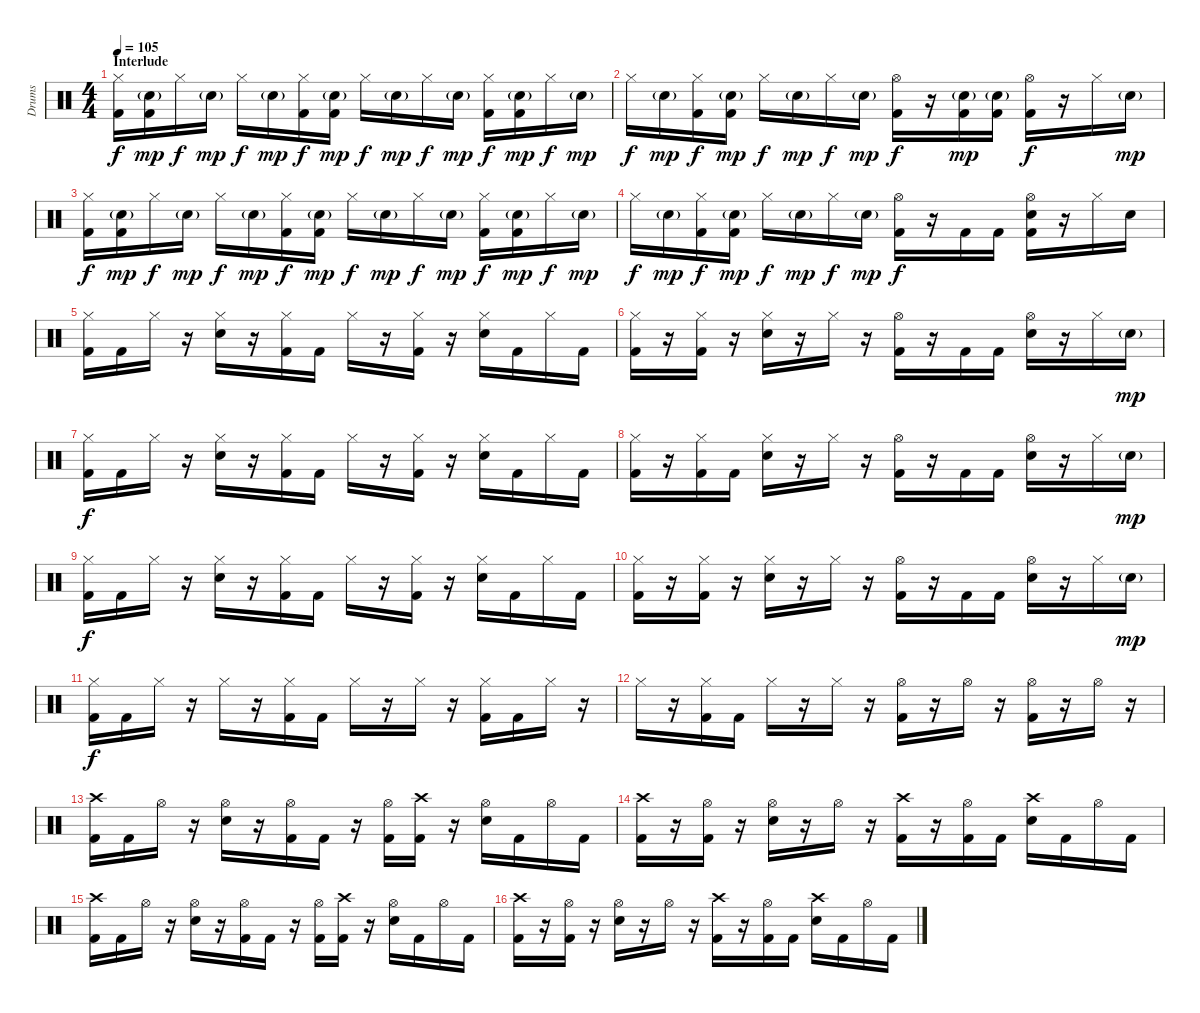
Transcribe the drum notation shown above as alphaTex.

\track ("Drums" "Drums") {instrument percussion}
\staff {score}
\articulation defaults
\ts (4 4)
\section ("" "Interlude")
\tempo 105
\clef neutral
\ks c
("Hi-Hat (closed)" "Kick (hit) 2").16{dy f} ("Snare (hit) 2"{g} "Kick (hit) 2").16{dy mp} "Hi-Hat (closed)".16{dy f} "Snare (hit) 2"{g}.16{dy mp} "Hi-Hat (closed)".16{dy f} "Snare (hit) 2"{g}.16{dy mp} ("Hi-Hat (closed)" "Kick (hit) 2").16{dy f} ("Snare (hit) 2"{g} "Kick (hit) 2").16{dy mp} "Hi-Hat (closed)".16{dy f} "Snare (hit) 2"{g}.16{dy mp} "Hi-Hat (closed)".16{dy f} "Snare (hit) 2"{g}.16{dy mp} ("Hi-Hat (closed)" "Kick (hit) 2").16{dy f} ("Snare (hit) 2"{g} "Kick (hit) 2").16{dy mp} "Hi-Hat (closed)".16{dy f} "Snare (hit) 2"{g}.16{dy mp} |
"Hi-Hat (closed)".16{dy f} "Snare (hit) 2"{g}.16{dy mp} ("Hi-Hat (closed)" "Kick (hit) 2").16{dy f} ("Snare (hit) 2"{g} "Kick (hit) 2").16{dy mp} "Hi-Hat (closed)".16{dy f} "Snare (hit) 2"{g}.16{dy mp} "Hi-Hat (closed)".16{dy f} "Snare (hit) 2"{g}.16{dy mp} ("Hi-Hat (open)" "Kick (hit) 2").16{dy f} r.16 ("Snare (hit) 2"{g} "Kick (hit) 2").16{dy mp} ("Snare (hit) 2"{g} "Kick (hit) 2").16 ("Hi-Hat (open)" "Kick (hit) 2").16{dy f} r.16 "Hi-Hat (closed)".16 "Snare (hit) 2"{g}.16{dy mp} |
("Hi-Hat (closed)" "Kick (hit) 2").16{dy f} ("Snare (hit) 2"{g} "Kick (hit) 2").16{dy mp} "Hi-Hat (closed)".16{dy f} "Snare (hit) 2"{g}.16{dy mp} "Hi-Hat (closed)".16{dy f} "Snare (hit) 2"{g}.16{dy mp} ("Hi-Hat (closed)" "Kick (hit) 2").16{dy f} ("Snare (hit) 2"{g} "Kick (hit) 2").16{dy mp} "Hi-Hat (closed)".16{dy f} "Snare (hit) 2"{g}.16{dy mp} "Hi-Hat (closed)".16{dy f} "Snare (hit) 2"{g}.16{dy mp} ("Hi-Hat (closed)" "Kick (hit) 2").16{dy f} ("Snare (hit) 2"{g} "Kick (hit) 2").16{dy mp} "Hi-Hat (closed)".16{dy f} "Snare (hit) 2"{g}.16{dy mp} |
"Hi-Hat (closed)".16{dy f} "Snare (hit) 2"{g}.16{dy mp} ("Hi-Hat (closed)" "Kick (hit) 2").16{dy f} ("Snare (hit) 2"{g} "Kick (hit) 2").16{dy mp} "Hi-Hat (closed)".16{dy f} "Snare (hit) 2"{g}.16{dy mp} "Hi-Hat (closed)".16{dy f} "Snare (hit) 2"{g}.16{dy mp} ("Hi-Hat (open)" "Kick (hit) 2").16{dy f} r.16 "Kick (hit) 2".16 "Kick (hit) 2".16 ("Hi-Hat (open)" "Snare (hit) 2" "Kick (hit) 2").16 r.16 "Hi-Hat (closed)".16 "Snare (hit) 2".16 |
("Hi-Hat (closed)" "Kick (hit) 2").16 "Kick (hit) 2".16 "Hi-Hat (closed)".16 r.16 ("Hi-Hat (closed)" "Snare (hit) 2").16 r.16 ("Hi-Hat (closed)" "Kick (hit) 2").16 "Kick (hit) 2".16 "Hi-Hat (closed)".16 r.16 ("Hi-Hat (closed)" "Kick (hit) 2").16 r.16 ("Hi-Hat (closed)" "Snare (hit) 2").16 "Kick (hit) 2".16 "Hi-Hat (closed)".16 "Kick (hit) 2".16 |
("Hi-Hat (closed)" "Kick (hit) 2").16 r.16 ("Hi-Hat (closed)" "Kick (hit) 2").16 r.16 ("Hi-Hat (closed)" "Snare (hit) 2").16 r.16 "Hi-Hat (closed)".16 r.16 ("Hi-Hat (open)" "Kick (hit) 2").16 r.16 "Kick (hit) 2".16 "Kick (hit) 2".16 ("Hi-Hat (open)" "Snare (hit) 2").16 r.16 "Hi-Hat (closed)".16 "Snare (hit) 2"{g}.16{dy mp} |
("Hi-Hat (closed)" "Kick (hit) 2").16{dy f} "Kick (hit) 2".16 "Hi-Hat (closed)".16 r.16 ("Hi-Hat (closed)" "Snare (hit) 2").16 r.16 ("Hi-Hat (closed)" "Kick (hit) 2").16 "Kick (hit) 2".16 "Hi-Hat (closed)".16 r.16 ("Hi-Hat (closed)" "Kick (hit) 2").16 r.16 ("Hi-Hat (closed)" "Snare (hit) 2").16 "Kick (hit) 2".16 "Hi-Hat (closed)".16 "Kick (hit) 2".16 |
("Hi-Hat (closed)" "Kick (hit) 2").16 r.16 ("Hi-Hat (closed)" "Kick (hit) 2").16 "Kick (hit) 2".16 ("Hi-Hat (closed)" "Snare (hit) 2").16 r.16 "Hi-Hat (closed)".16 r.16 ("Hi-Hat (open)" "Kick (hit) 2").16 r.16 "Kick (hit) 2".16 "Kick (hit) 2".16 ("Hi-Hat (open)" "Snare (hit) 2").16 r.16 "Hi-Hat (closed)".16 "Snare (hit) 2"{g}.16{dy mp} |
("Hi-Hat (closed)" "Kick (hit) 2").16{dy f} "Kick (hit) 2".16 "Hi-Hat (closed)".16 r.16 ("Hi-Hat (closed)" "Snare (hit) 2").16 r.16 ("Hi-Hat (closed)" "Kick (hit) 2").16 "Kick (hit) 2".16 "Hi-Hat (closed)".16 r.16 ("Hi-Hat (closed)" "Kick (hit) 2").16 r.16 ("Hi-Hat (closed)" "Snare (hit) 2").16 "Kick (hit) 2".16 "Hi-Hat (closed)".16 "Kick (hit) 2".16 |
("Hi-Hat (closed)" "Kick (hit) 2").16 r.16 ("Hi-Hat (closed)" "Kick (hit) 2").16 r.16 ("Hi-Hat (closed)" "Snare (hit) 2").16 r.16 "Hi-Hat (closed)".16 r.16 ("Hi-Hat (open)" "Kick (hit) 2").16 r.16 "Kick (hit) 2".16 "Kick (hit) 2".16 ("Hi-Hat (open)" "Snare (hit) 2").16 r.16 "Hi-Hat (closed)".16 "Snare (hit) 2"{g}.16{dy mp} |
("Hi-Hat (closed)" "Kick (hit) 2").16{dy f} "Kick (hit) 2".16 "Hi-Hat (closed)".16 r.16 "Hi-Hat (closed)".16 r.16 ("Hi-Hat (closed)" "Kick (hit) 2").16 "Kick (hit) 2".16 "Hi-Hat (closed)".16 r.16 "Hi-Hat (closed)".16 r.16 ("Hi-Hat (closed)" "Kick (hit) 2").16 "Kick (hit) 2".16 "Hi-Hat (closed)".16 r.16 |
"Hi-Hat (closed)".16 r.16 ("Hi-Hat (closed)" "Kick (hit) 2").16 "Kick (hit) 2".16 "Hi-Hat (closed)".16 r.16 "Hi-Hat (closed)".16 r.16 ("Hi-Hat (open)" "Kick (hit) 2").16 r.16 "Hi-Hat (open)".16 r.16 ("Hi-Hat (open)" "Kick (hit) 2").16 r.16 "Hi-Hat (open)".16 r.16 |
("Crash high (hit)" "Kick (hit) 2").16 "Kick (hit) 2".16 "Hi-Hat (open)".16 r.16 ("Hi-Hat (open)" "Snare (hit) 2").16 r.16 ("Hi-Hat (open)" "Kick (hit) 2").16 "Kick (hit) 2".16 r.16 ("Hi-Hat (open)" "Kick (hit) 2").16 ("Crash high (hit)" "Kick (hit) 2").16 r.16 ("Hi-Hat (open)" "Snare (hit) 2").16 "Kick (hit) 2".16 "Hi-Hat (open)".16 "Kick (hit) 2".16 |
("Crash high (hit)" "Kick (hit) 2").16 r.16 ("Hi-Hat (open)" "Kick (hit) 2").16 r.16 ("Hi-Hat (open)" "Snare (hit) 2").16 r.16 "Hi-Hat (open)".16 r.16 ("Crash high (hit)" "Kick (hit) 2").16 r.16 ("Hi-Hat (open)" "Kick (hit) 2").16 "Kick (hit) 2".16 ("Crash high (hit)" "Snare (hit) 2").16 "Kick (hit) 2".16 "Hi-Hat (open)".16 "Kick (hit) 2".16 |
("Crash high (hit)" "Kick (hit) 2").16 "Kick (hit) 2".16 "Hi-Hat (open)".16 r.16 ("Hi-Hat (open)" "Snare (hit) 2").16 r.16 ("Hi-Hat (open)" "Kick (hit) 2").16 "Kick (hit) 2".16 r.16 ("Hi-Hat (open)" "Kick (hit) 2").16 ("Crash high (hit)" "Kick (hit) 2").16 r.16 ("Hi-Hat (open)" "Snare (hit) 2").16 "Kick (hit) 2".16 "Hi-Hat (open)".16 "Kick (hit) 2".16 |
("Crash high (hit)" "Kick (hit) 2").16 r.16 ("Hi-Hat (open)" "Kick (hit) 2").16 r.16 ("Hi-Hat (open)" "Snare (hit) 2").16 r.16 "Hi-Hat (open)".16 r.16 ("Crash high (hit)" "Kick (hit) 2").16 r.16 ("Hi-Hat (open)" "Kick (hit) 2").16 "Kick (hit) 2".16 ("Crash high (hit)" "Snare (hit) 2").16 "Kick (hit) 2".16 "Hi-Hat (open)".16 "Kick (hit) 2".16
